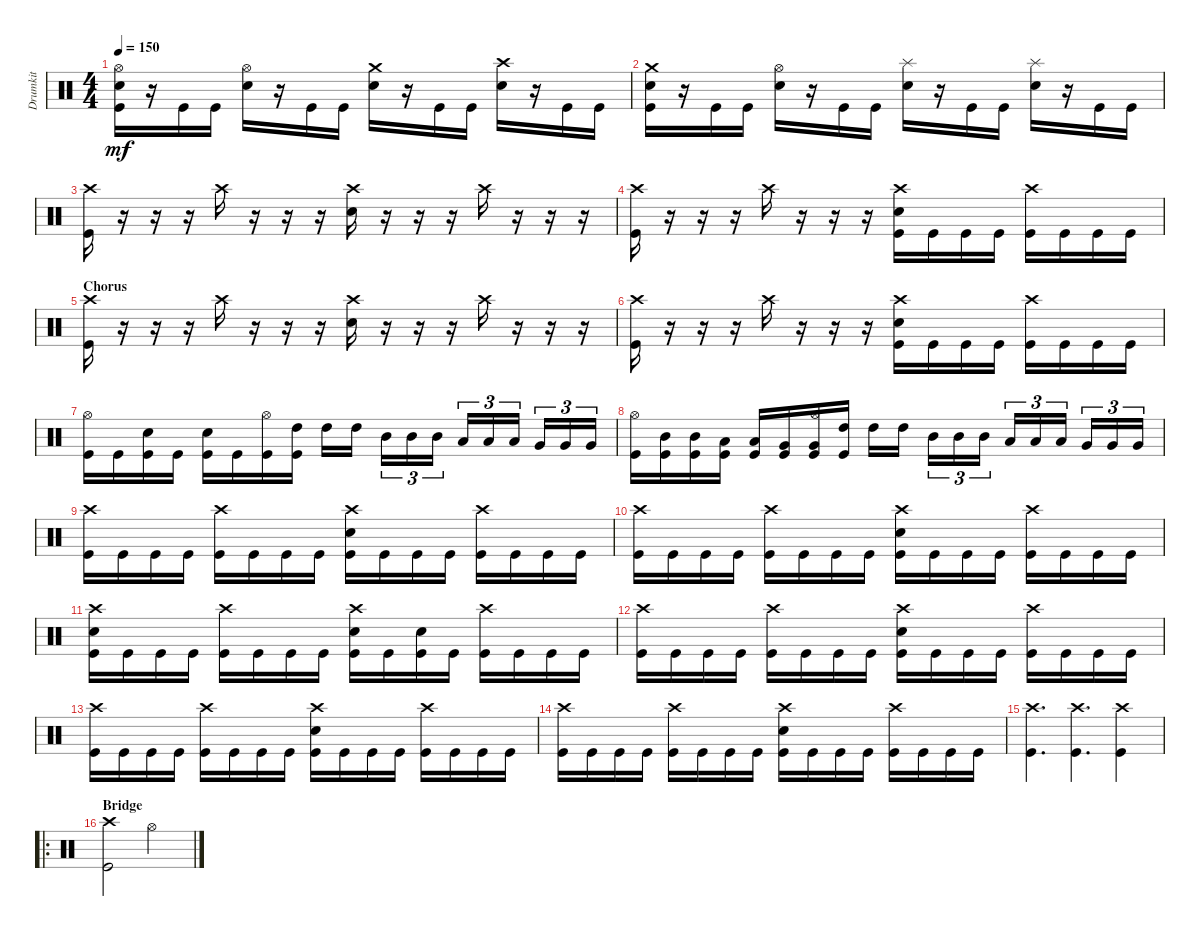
\track ("Drumkit" "Drumkit") {instrument percussion}
\staff {score}
\articulation defaults
\ts (4 4)
\tempo 150
\clef neutral
\ks c
("Snare (hit) 2" "Kick (hit)" "Hi-Hat (open)").16{dy mf} r.16 "Kick (hit)".16 "Kick (hit)".16 ("Snare (hit) 2" "Hi-Hat (open)").16 r.16 "Kick (hit)".16 "Kick (hit)".16 ("Snare (hit) 2" "Crash medium (hit)").16 r.16 "Kick (hit)".16 "Kick (hit)".16 ("Snare (hit) 2" "Crash high (hit)").16 r.16 "Kick (hit)".16 "Kick (hit)".16 |
("Snare (hit) 2" "Kick (hit)" "Crash medium (hit)").16 r.16 "Kick (hit)".16 "Kick (hit)".16 ("Snare (hit) 2" "Hi-Hat (open)").16 r.16 "Kick (hit)".16 "Kick (hit)".16 ("Snare (hit) 2" "Splash (hit)").16 r.16 "Kick (hit)".16 "Kick (hit)".16 ("Snare (hit) 2" "Splash (hit)").16 r.16 "Kick (hit)".16 "Kick (hit)".16 |
("Kick (hit)" "Crash high (hit)").16 r.16 r.16 r.16 "Crash high (hit)".16 r.16 r.16 r.16 ("Crash high (hit)" "Snare (hit) 2").16 r.16 r.16 r.16 "Crash high (hit)".16 r.16 r.16 r.16 |
("Kick (hit)" "Crash high (hit)").16 r.16 r.16 r.16 "Crash high (hit)".16 r.16 r.16 r.16 ("Crash high (hit)" "Snare (hit) 2" "Kick (hit)").16 "Kick (hit)".16 "Kick (hit)".16 "Kick (hit)".16 ("Crash high (hit)" "Kick (hit)").16 "Kick (hit)".16 "Kick (hit)".16 "Kick (hit)".16 |
\section ("" "Chorus")
("Kick (hit)" "Crash high (hit)").16 r.16 r.16 r.16 "Crash high (hit)".16 r.16 r.16 r.16 ("Crash high (hit)" "Snare (hit) 2").16 r.16 r.16 r.16 "Crash high (hit)".16 r.16 r.16 r.16 |
("Kick (hit)" "Crash high (hit)").16 r.16 r.16 r.16 "Crash high (hit)".16 r.16 r.16 r.16 ("Crash high (hit)" "Snare (hit) 2" "Kick (hit)").16 "Kick (hit)".16 "Kick (hit)".16 "Kick (hit)".16 ("Crash high (hit)" "Kick (hit)").16 "Kick (hit)".16 "Kick (hit)".16 "Kick (hit)".16 |
("Hi-Hat (open)" "Kick (hit)").16 "Kick (hit)".16 ("Snare (hit) 2" "Kick (hit)").16 "Kick (hit)".16 ("Snare (hit) 2" "Kick (hit)").16 "Kick (hit)".16 ("Hi-Hat (open)" "Kick (hit)").16 ("High Tom (hit)" "Kick (hit)").16 "High Tom (hit)".16 "High Tom (hit)".16 "Mid Tom (hit)".16{tu (3 2)} "Mid Tom (hit)".16{tu (3 2)} "Mid Tom (hit)".16{tu (3 2)} "Low Tom (hit)".16{tu (3 2)} "Low Tom (hit)".16{tu (3 2)} "Low Tom (hit)".16{tu (3 2)} "Very Low Tom (hit)".16{tu (3 2)} "Very Low Tom (hit)".16{tu (3 2)} "Very Low Tom (hit)".16{tu (3 2)} |
("Hi-Hat (open)" "Kick (hit)").16 ("Kick (hit)" "Mid Tom (hit)").16 ("Kick (hit)" "Mid Tom (hit)").16 ("Kick (hit)" "Low Tom (hit)").16 ("Kick (hit)" "Low Tom (hit)").16 ("Kick (hit)" "Very Low Tom (hit)").16 ("Hi-Hat (open)" "Kick (hit)" "Very Low Tom (hit)").16 ("High Tom (hit)" "Kick (hit)").16 "High Tom (hit)".16 "High Tom (hit)".16 "Mid Tom (hit)".16{tu (3 2)} "Mid Tom (hit)".16{tu (3 2)} "Mid Tom (hit)".16{tu (3 2)} "Low Tom (hit)".16{tu (3 2)} "Low Tom (hit)".16{tu (3 2)} "Low Tom (hit)".16{tu (3 2)} "Very Low Tom (hit)".16{tu (3 2)} "Very Low Tom (hit)".16{tu (3 2)} "Very Low Tom (hit)".16{tu (3 2)} |
("Crash high (hit)" "Kick (hit)").16 "Kick (hit)".16 "Kick (hit)".16 "Kick (hit)".16 ("Crash high (hit)" "Kick (hit)").16 "Kick (hit)".16 "Kick (hit)".16 "Kick (hit)".16 ("Crash high (hit)" "Snare (hit) 2" "Kick (hit)").16 "Kick (hit)".16 "Kick (hit)".16 "Kick (hit)".16 ("Crash high (hit)" "Kick (hit)").16 "Kick (hit)".16 "Kick (hit)".16 "Kick (hit)".16 |
("Crash high (hit)" "Kick (hit)").16 "Kick (hit)".16 "Kick (hit)".16 "Kick (hit)".16 ("Crash high (hit)" "Kick (hit)").16 "Kick (hit)".16 "Kick (hit)".16 "Kick (hit)".16 ("Crash high (hit)" "Snare (hit) 2" "Kick (hit)").16 "Kick (hit)".16 "Kick (hit)".16 "Kick (hit)".16 ("Crash high (hit)" "Kick (hit)").16 "Kick (hit)".16 "Kick (hit)".16 "Kick (hit)".16 |
("Crash high (hit)" "Snare (hit) 2" "Kick (hit)").16 "Kick (hit)".16 "Kick (hit)".16 "Kick (hit)".16 ("Crash high (hit)" "Kick (hit)").16 "Kick (hit)".16 "Kick (hit)".16 "Kick (hit)".16 ("Crash high (hit)" "Snare (hit) 2" "Kick (hit)").16 "Kick (hit)".16 ("Kick (hit)" "Snare (hit) 2").16 "Kick (hit)".16 ("Crash high (hit)" "Kick (hit)").16 "Kick (hit)".16 "Kick (hit)".16 "Kick (hit)".16 |
("Crash high (hit)" "Kick (hit)").16 "Kick (hit)".16 "Kick (hit)".16 "Kick (hit)".16 ("Crash high (hit)" "Kick (hit)").16 "Kick (hit)".16 "Kick (hit)".16 "Kick (hit)".16 ("Crash high (hit)" "Snare (hit) 2" "Kick (hit)").16 "Kick (hit)".16 "Kick (hit)".16 "Kick (hit)".16 ("Crash high (hit)" "Kick (hit)").16 "Kick (hit)".16 "Kick (hit)".16 "Kick (hit)".16 |
("Crash high (hit)" "Kick (hit)").16 "Kick (hit)".16 "Kick (hit)".16 "Kick (hit)".16 ("Crash high (hit)" "Kick (hit)").16 "Kick (hit)".16 "Kick (hit)".16 "Kick (hit)".16 ("Crash high (hit)" "Snare (hit) 2" "Kick (hit)").16 "Kick (hit)".16 "Kick (hit)".16 "Kick (hit)".16 ("Crash high (hit)" "Kick (hit)").16 "Kick (hit)".16 "Kick (hit)".16 "Kick (hit)".16 |
("Crash high (hit)" "Kick (hit)").16 "Kick (hit)".16 "Kick (hit)".16 "Kick (hit)".16 ("Crash high (hit)" "Kick (hit)").16 "Kick (hit)".16 "Kick (hit)".16 "Kick (hit)".16 ("Crash high (hit)" "Snare (hit) 2" "Kick (hit)").16 "Kick (hit)".16 "Kick (hit)".16 "Kick (hit)".16 ("Crash high (hit)" "Kick (hit)").16 "Kick (hit)".16 "Kick (hit)".16 "Kick (hit)".16 |
("Crash high (hit)" "Kick (hit)").4{d} ("Kick (hit)" "Crash high (hit)").4{d} ("Kick (hit)" "Crash high (hit)").4 |
\ro
\section ("" "Bridge")
("Crash high (hit)" "Kick (hit)").2 "Hi-Hat (open)".2
